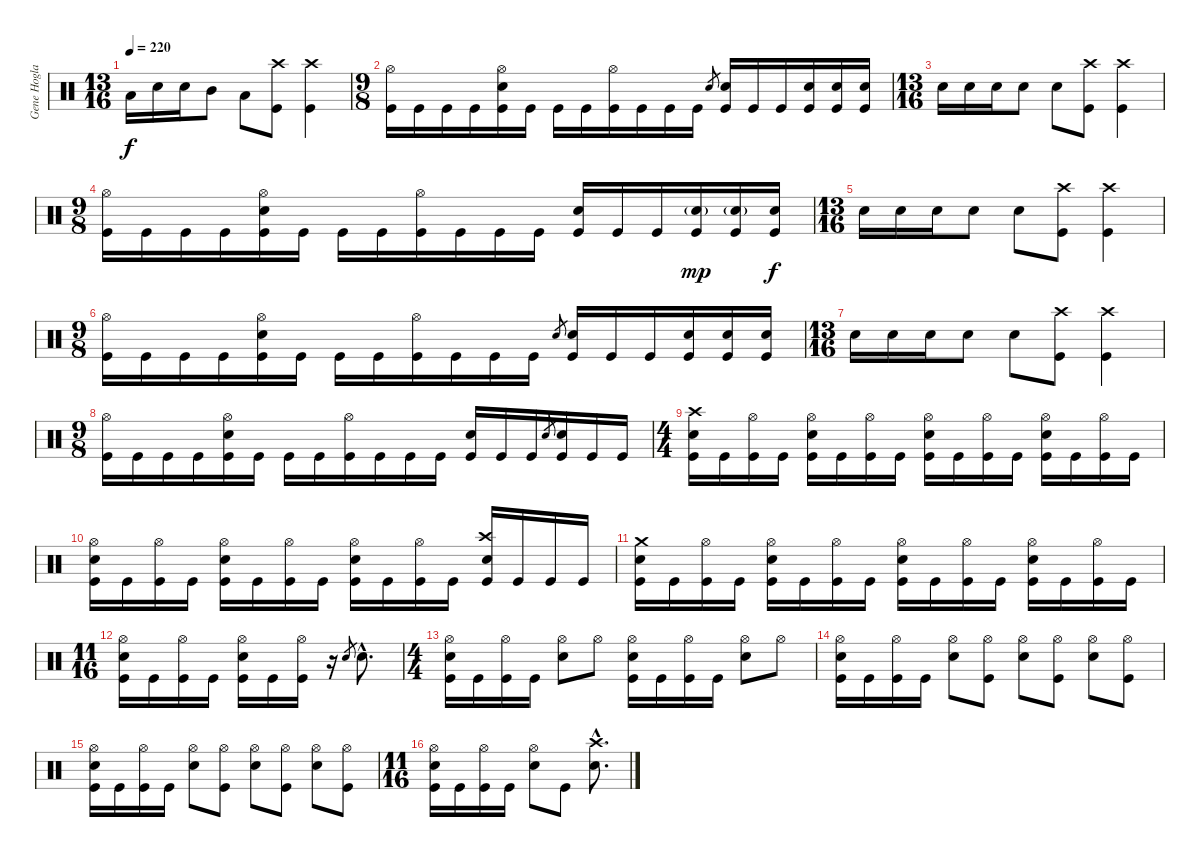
\track ("Gene Hoglan" "Gene Hogla") {instrument percussion}
\staff {score}
\articulation defaults
\ts (13 16)
\tempo 220
\clef neutral
\ks c "Low Tom (hit)".16{dy f} "Electric Snare (hit)".16 "Electric Snare (hit)".16 "Mid Tom (hit)".8 "Low Tom (hit)".8
("Crash high (hit)" "Kick (hit)").8 ("Crash high (hit)" "Kick (hit)").4 |
\ts (9 8)
("Hi-Hat (open)" "Kick (hit)").16 "Kick (hit)".16 "Kick (hit)".16 "Kick (hit)".16 ("Hi-Hat (open)" "Electric Snare (hit)" "Kick (hit)").16 "Kick (hit)".16 "Kick (hit)".16 "Kick (hit)".16 ("Hi-Hat (open)" "Kick (hit)").16 "Kick (hit)".16 "Kick (hit)".16 "Kick (hit)".16 "Electric Snare (hit)".8{gr} ("Electric Snare (hit)" "Kick (hit)").16 "Kick (hit)".16 "Kick (hit)".16 ("Electric Snare (hit)" "Kick (hit)").16 ("Electric Snare (hit)" "Kick (hit)").16 ("Electric Snare (hit)" "Kick (hit)").16 |
\ts (13 16)
"Electric Snare (hit)".16 "Electric Snare (hit)".16 "Electric Snare (hit)".16 "Electric Snare (hit)".8 "Electric Snare (hit)".8 ("Crash high (hit)" "Kick (hit)").8 ("Crash high (hit)" "Kick (hit)").4 |
\ts (9 8)
("Hi-Hat (open)" "Kick (hit)").16 "Kick (hit)".16 "Kick (hit)".16 "Kick (hit)".16 ("Hi-Hat (open)" "Electric Snare (hit)" "Kick (hit)").16 "Kick (hit)".16 "Kick (hit)".16 "Kick (hit)".16 ("Hi-Hat (open)" "Kick (hit)").16 "Kick (hit)".16 "Kick (hit)".16 "Kick (hit)".16 ("Electric Snare (hit)" "Kick (hit)").16 "Kick (hit)".16 "Kick (hit)".16 ("Electric Snare (hit)"{g} "Kick (hit)").16{dy mp} ("Electric Snare (hit)"{g} "Kick (hit)").16 ("Electric Snare (hit)" "Kick (hit)").16{dy f} |
\ts (13 16)
"Electric Snare (hit)".16 "Electric Snare (hit)".16 "Electric Snare (hit)".16 "Electric Snare (hit)".8 "Electric Snare (hit)".8 ("Crash high (hit)" "Kick (hit)").8 ("Crash high (hit)" "Kick (hit)").4 |
\ts (9 8)
("Hi-Hat (open)" "Kick (hit)").16 "Kick (hit)".16 "Kick (hit)".16 "Kick (hit)".16 ("Hi-Hat (open)" "Electric Snare (hit)" "Kick (hit)").16 "Kick (hit)".16 "Kick (hit)".16 "Kick (hit)".16 ("Hi-Hat (open)" "Kick (hit)").16 "Kick (hit)".16 "Kick (hit)".16 "Kick (hit)".16 "Electric Snare (hit)".8{gr} ("Electric Snare (hit)" "Kick (hit)").16 "Kick (hit)".16 "Kick (hit)".16 ("Electric Snare (hit)" "Kick (hit)").16 ("Electric Snare (hit)" "Kick (hit)").16 ("Electric Snare (hit)" "Kick (hit)").16 |
\ts (13 16)
"Electric Snare (hit)".16 "Electric Snare (hit)".16 "Electric Snare (hit)".16 "Electric Snare (hit)".8 "Electric Snare (hit)".8 ("Crash high (hit)" "Kick (hit)").8 ("Crash high (hit)" "Kick (hit)").4 |
\ts (9 8)
("Hi-Hat (open)" "Kick (hit)").16 "Kick (hit)".16 "Kick (hit)".16 "Kick (hit)".16 ("Hi-Hat (open)" "Electric Snare (hit)" "Kick (hit)").16 "Kick (hit)".16 "Kick (hit)".16 "Kick (hit)".16 ("Hi-Hat (open)" "Kick (hit)").16 "Kick (hit)".16 "Kick (hit)".16 "Kick (hit)".16 ("Electric Snare (hit)" "Kick (hit)").16 "Kick (hit)".16 "Kick (hit)".16 "Electric Snare (hit)".8{gr} ("Electric Snare (hit)" "Kick (hit)").16 "Kick (hit)".16 "Kick (hit)".16 |
\ts (4 4)
("Crash high (hit)" "Electric Snare (hit)" "Kick (hit)").16 "Kick (hit)".16 ("Hi-Hat (open)" "Kick (hit)").16 "Kick (hit)".16 ("Hi-Hat (open)" "Electric Snare (hit)" "Kick (hit)").16 "Kick (hit)".16 ("Hi-Hat (open)" "Kick (hit)").16 "Kick (hit)".16 ("Hi-Hat (open)" "Electric Snare (hit)" "Kick (hit)").16 "Kick (hit)".16 ("Hi-Hat (open)" "Kick (hit)").16 "Kick (hit)".16 ("Hi-Hat (open)" "Electric Snare (hit)" "Kick (hit)").16 "Kick (hit)".16 ("Hi-Hat (open)" "Kick (hit)").16 "Kick (hit)".16 |
("Hi-Hat (open)" "Electric Snare (hit)" "Kick (hit)").16 "Kick (hit)".16 ("Hi-Hat (open)" "Kick (hit)").16 "Kick (hit)".16 ("Hi-Hat (open)" "Electric Snare (hit)" "Kick (hit)").16 "Kick (hit)".16 ("Hi-Hat (open)" "Kick (hit)").16 "Kick (hit)".16 ("Hi-Hat (open)" "Electric Snare (hit)" "Kick (hit)").16 "Kick (hit)".16 ("Hi-Hat (open)" "Kick (hit)").16 "Kick (hit)".16 ("Crash high (hit)" "Electric Snare (hit)" "Kick (hit)").16 "Kick (hit)".16 "Kick (hit)".16 "Kick (hit)".16 |
("Crash medium (hit)" "Electric Snare (hit)" "Kick (hit)").16 "Kick (hit)".16 ("Hi-Hat (open)" "Kick (hit)").16 "Kick (hit)".16 ("Hi-Hat (open)" "Electric Snare (hit)" "Kick (hit)").16 "Kick (hit)".16 ("Hi-Hat (open)" "Kick (hit)").16 "Kick (hit)".16 ("Hi-Hat (open)" "Electric Snare (hit)" "Kick (hit)").16 "Kick (hit)".16 ("Hi-Hat (open)" "Kick (hit)").16 "Kick (hit)".16 ("Hi-Hat (open)" "Electric Snare (hit)" "Kick (hit)").16 "Kick (hit)".16 ("Hi-Hat (open)" "Kick (hit)").16 "Kick (hit)".16 |
\ts (11 16)
("Hi-Hat (open)" "Electric Snare (hit)" "Kick (hit)").16 "Kick (hit)".16 ("Hi-Hat (open)" "Kick (hit)").16 "Kick (hit)".16 ("Hi-Hat (open)" "Electric Snare (hit)" "Kick (hit)").16 "Kick (hit)".16 ("Hi-Hat (open)" "Kick (hit)").16 r.16 "Electric Snare (hit)".8{gr} "Electric Snare (hit)"{hac}.8{d} |
\ts (4 4)
("Hi-Hat (open)" "Electric Snare (hit)" "Kick (hit)").16 "Kick (hit)".16 ("Hi-Hat (open)" "Kick (hit)").16 "Kick (hit)".16 ("Hi-Hat (open)" "Electric Snare (hit)").8 "Hi-Hat (open)".8 ("Hi-Hat (open)" "Electric Snare (hit)" "Kick (hit)").16 "Kick (hit)".16 ("Hi-Hat (open)" "Kick (hit)").16 "Kick (hit)".16 ("Hi-Hat (open)" "Electric Snare (hit)").8 "Hi-Hat (open)".8 |
("Hi-Hat (open)" "Electric Snare (hit)" "Kick (hit)").16 "Kick (hit)".16 ("Hi-Hat (open)" "Kick (hit)").16 "Kick (hit)".16 ("Hi-Hat (open)" "Electric Snare (hit)").8 ("Hi-Hat (open)" "Kick (hit)").8 ("Hi-Hat (open)" "Electric Snare (hit)").8 ("Hi-Hat (open)" "Kick (hit)").8 ("Hi-Hat (open)" "Electric Snare (hit)").8 ("Hi-Hat (open)" "Kick (hit)").8 |
("Hi-Hat (open)" "Electric Snare (hit)" "Kick (hit)").16 "Kick (hit)".16 ("Hi-Hat (open)" "Kick (hit)").16 "Kick (hit)".16 ("Hi-Hat (open)" "Electric Snare (hit)").8 ("Hi-Hat (open)" "Kick (hit)").8 ("Hi-Hat (open)" "Electric Snare (hit)").8 ("Hi-Hat (open)" "Kick (hit)").8 ("Hi-Hat (open)" "Electric Snare (hit)").8 ("Hi-Hat (open)" "Kick (hit)").8 |
\ts (11 16)
("Hi-Hat (open)" "Electric Snare (hit)" "Kick (hit)").16 "Kick (hit)".16 ("Hi-Hat (open)" "Kick (hit)").16 "Kick (hit)".16 ("Hi-Hat (open)" "Electric Snare (hit)").8 "Kick (hit)".8 ("Crash high (hit)"{hac} "Electric Snare (hit)"{hac}).8{d}
